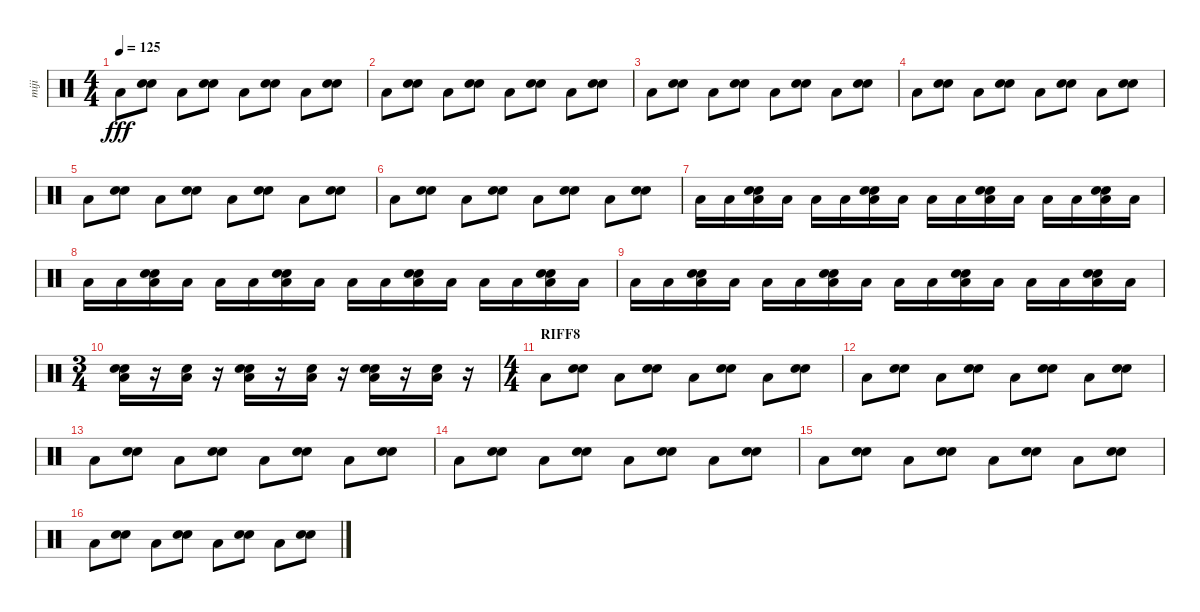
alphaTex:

\track ("miji" "miji") {instrument percussion}
\staff {score}
\articulation defaults
\ts (4 4)
\tempo 125
\clef neutral
\ks c "Low Floor Tom (hit)".8{dy fff}
("Electric Snare (hit)" "Electric Snare (hit)").8 "Low Floor Tom (hit)".8 ("Electric Snare (hit)" "Electric Snare (hit)").8 "Low Floor Tom (hit)".8 ("Electric Snare (hit)" "Electric Snare (hit)").8 "Low Floor Tom (hit)".8 ("Electric Snare (hit)" "Electric Snare (hit)").8 |
"Low Floor Tom (hit)".8 ("Electric Snare (hit)" "Electric Snare (hit)").8 "Low Floor Tom (hit)".8 ("Electric Snare (hit)" "Electric Snare (hit)").8 "Low Floor Tom (hit)".8 ("Electric Snare (hit)" "Electric Snare (hit)").8 "Low Floor Tom (hit)".8 ("Electric Snare (hit)" "Electric Snare (hit)").8 |
"Low Floor Tom (hit)".8 ("Electric Snare (hit)" "Electric Snare (hit)").8 "Low Floor Tom (hit)".8 ("Electric Snare (hit)" "Electric Snare (hit)").8 "Low Floor Tom (hit)".8 ("Electric Snare (hit)" "Electric Snare (hit)").8 "Low Floor Tom (hit)".8 ("Electric Snare (hit)" "Electric Snare (hit)").8 |
"Low Floor Tom (hit)".8 ("Electric Snare (hit)" "Electric Snare (hit)").8 "Low Floor Tom (hit)".8 ("Electric Snare (hit)" "Electric Snare (hit)").8 "Low Floor Tom (hit)".8 ("Electric Snare (hit)" "Electric Snare (hit)").8 "Low Floor Tom (hit)".8 ("Electric Snare (hit)" "Electric Snare (hit)").8 |
"Low Floor Tom (hit)".8 ("Electric Snare (hit)" "Electric Snare (hit)").8 "Low Floor Tom (hit)".8 ("Electric Snare (hit)" "Electric Snare (hit)").8 "Low Floor Tom (hit)".8 ("Electric Snare (hit)" "Electric Snare (hit)").8 "Low Floor Tom (hit)".8 ("Electric Snare (hit)" "Electric Snare (hit)").8 |
"Low Floor Tom (hit)".8 ("Electric Snare (hit)" "Electric Snare (hit)").8 "Low Floor Tom (hit)".8 ("Electric Snare (hit)" "Electric Snare (hit)").8 "Low Floor Tom (hit)".8 ("Electric Snare (hit)" "Electric Snare (hit)").8 "Low Floor Tom (hit)".8 ("Electric Snare (hit)" "Electric Snare (hit)").8 |
"Low Floor Tom (hit)".16 "Low Floor Tom (hit)".16 ("Low Floor Tom (hit)" "Electric Snare (hit)" "Electric Snare (hit)").16 "Low Floor Tom (hit)".16 "Low Floor Tom (hit)".16 "Low Floor Tom (hit)".16 ("Low Floor Tom (hit)" "Electric Snare (hit)" "Electric Snare (hit)").16 "Low Floor Tom (hit)".16 "Low Floor Tom (hit)".16 "Low Floor Tom (hit)".16 ("Low Floor Tom (hit)" "Electric Snare (hit)" "Electric Snare (hit)").16 "Low Floor Tom (hit)".16 "Low Floor Tom (hit)".16 "Low Floor Tom (hit)".16 ("Low Floor Tom (hit)" "Electric Snare (hit)" "Electric Snare (hit)").16 "Low Floor Tom (hit)".16 |
"Low Floor Tom (hit)".16 "Low Floor Tom (hit)".16 ("Low Floor Tom (hit)" "Electric Snare (hit)" "Electric Snare (hit)").16 "Low Floor Tom (hit)".16 "Low Floor Tom (hit)".16 "Low Floor Tom (hit)".16 ("Low Floor Tom (hit)" "Electric Snare (hit)" "Electric Snare (hit)").16 "Low Floor Tom (hit)".16 "Low Floor Tom (hit)".16 "Low Floor Tom (hit)".16 ("Low Floor Tom (hit)" "Electric Snare (hit)" "Electric Snare (hit)").16 "Low Floor Tom (hit)".16 "Low Floor Tom (hit)".16 "Low Floor Tom (hit)".16 ("Low Floor Tom (hit)" "Electric Snare (hit)" "Electric Snare (hit)").16 "Low Floor Tom (hit)".16 |
"Low Floor Tom (hit)".16 "Low Floor Tom (hit)".16 ("Low Floor Tom (hit)" "Electric Snare (hit)" "Electric Snare (hit)").16 "Low Floor Tom (hit)".16 "Low Floor Tom (hit)".16 "Low Floor Tom (hit)".16 ("Low Floor Tom (hit)" "Electric Snare (hit)" "Electric Snare (hit)").16 "Low Floor Tom (hit)".16 "Low Floor Tom (hit)".16 "Low Floor Tom (hit)".16 ("Low Floor Tom (hit)" "Electric Snare (hit)" "Electric Snare (hit)").16 "Low Floor Tom (hit)".16 "Low Floor Tom (hit)".16 "Low Floor Tom (hit)".16 ("Low Floor Tom (hit)" "Electric Snare (hit)" "Electric Snare (hit)").16 "Low Floor Tom (hit)".16 |
\ts (3 4)
("Low Floor Tom (hit)" "Electric Snare (hit)" "Electric Snare (hit)").16 r.16 ("Low Floor Tom (hit)" "Electric Snare (hit)").16 r.16 ("Low Floor Tom (hit)" "Electric Snare (hit)" "Electric Snare (hit)").16 r.16 ("Low Floor Tom (hit)" "Electric Snare (hit)").16 r.16 ("Low Floor Tom (hit)" "Electric Snare (hit)" "Electric Snare (hit)").16 r.16 ("Low Floor Tom (hit)" "Electric Snare (hit)").16 r.16 |
\ts (4 4)
\section ("" "RIFF8")
"Low Floor Tom (hit)".8 ("Electric Snare (hit)" "Electric Snare (hit)").8 "Low Floor Tom (hit)".8 ("Electric Snare (hit)" "Electric Snare (hit)").8 "Low Floor Tom (hit)".8 ("Electric Snare (hit)" "Electric Snare (hit)").8 "Low Floor Tom (hit)".8 ("Electric Snare (hit)" "Electric Snare (hit)").8 |
"Low Floor Tom (hit)".8 ("Electric Snare (hit)" "Electric Snare (hit)").8 "Low Floor Tom (hit)".8 ("Electric Snare (hit)" "Electric Snare (hit)").8 "Low Floor Tom (hit)".8 ("Electric Snare (hit)" "Electric Snare (hit)").8 "Low Floor Tom (hit)".8 ("Electric Snare (hit)" "Electric Snare (hit)").8 |
"Low Floor Tom (hit)".8 ("Electric Snare (hit)" "Electric Snare (hit)").8 "Low Floor Tom (hit)".8 ("Electric Snare (hit)" "Electric Snare (hit)").8 "Low Floor Tom (hit)".8 ("Electric Snare (hit)" "Electric Snare (hit)").8 "Low Floor Tom (hit)".8 ("Electric Snare (hit)" "Electric Snare (hit)").8 |
"Low Floor Tom (hit)".8 ("Electric Snare (hit)" "Electric Snare (hit)").8 "Low Floor Tom (hit)".8 ("Electric Snare (hit)" "Electric Snare (hit)").8 "Low Floor Tom (hit)".8 ("Electric Snare (hit)" "Electric Snare (hit)").8 "Low Floor Tom (hit)".8 ("Electric Snare (hit)" "Electric Snare (hit)").8 |
"Low Floor Tom (hit)".8 ("Electric Snare (hit)" "Electric Snare (hit)").8 "Low Floor Tom (hit)".8 ("Electric Snare (hit)" "Electric Snare (hit)").8 "Low Floor Tom (hit)".8 ("Electric Snare (hit)" "Electric Snare (hit)").8 "Low Floor Tom (hit)".8 ("Electric Snare (hit)" "Electric Snare (hit)").8 |
"Low Floor Tom (hit)".8 ("Electric Snare (hit)" "Electric Snare (hit)").8 "Low Floor Tom (hit)".8 ("Electric Snare (hit)" "Electric Snare (hit)").8 "Low Floor Tom (hit)".8 ("Electric Snare (hit)" "Electric Snare (hit)").8 "Low Floor Tom (hit)".8 ("Electric Snare (hit)" "Electric Snare (hit)").8
